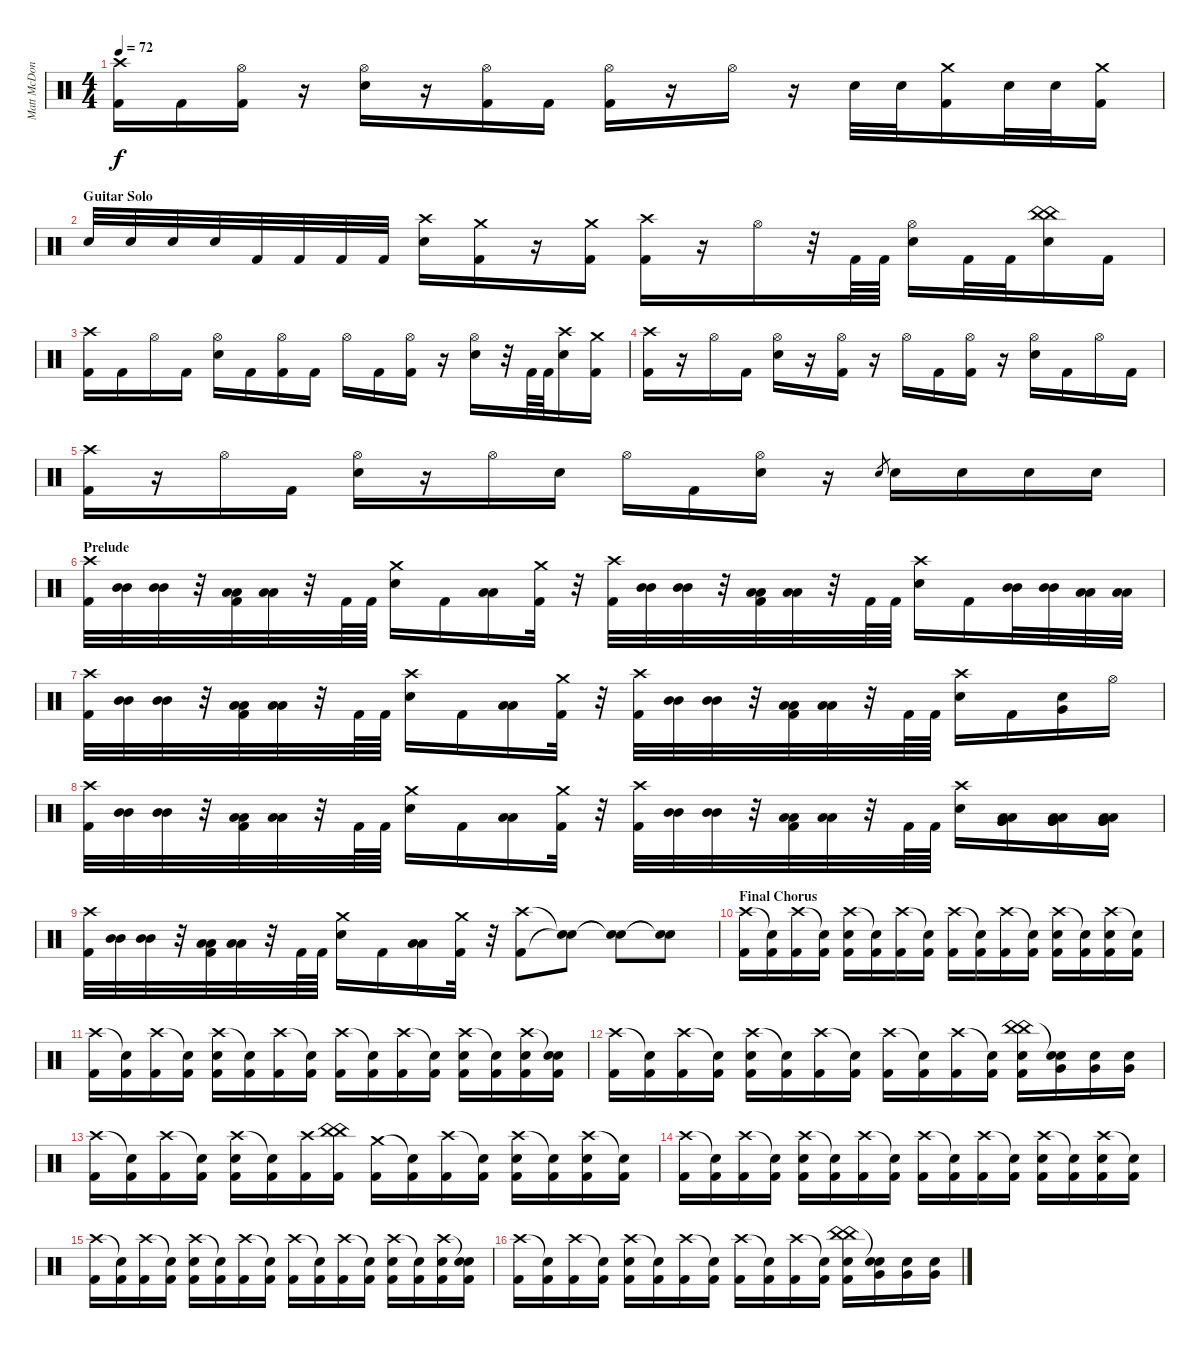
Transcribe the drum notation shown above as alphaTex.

\track ("Matt McDonough \"Spüg\" (Drums)" "Matt McDon") {instrument percussion}
\staff {score}
\articulation defaults
\ts (4 4)
\tempo 72
\clef neutral
\ks c
("Crash high (hit)" "Kick (hit) 2").16{dy f} "Kick (hit) 2".16 ("Hi-Hat (open)" "Kick (hit) 2").16 r.16 ("Hi-Hat (open)" "Electric Snare (hit)").16 r.16 ("Hi-Hat (open)" "Kick (hit) 2").16 "Kick (hit) 2".16 ("Hi-Hat (open)" "Kick (hit) 2").16 r.16 "Hi-Hat (open)".16 r.16 "Electric Snare (hit)".32 "Electric Snare (hit)".32 ("Crash medium (hit)" "Kick (hit) 2").16 "Electric Snare (hit)".32 "Electric Snare (hit)".32 ("Crash medium (hit)" "Kick (hit) 2").16 |
\section ("" "Guitar Solo")
"Electric Snare (hit)".32 "Electric Snare (hit)".32 "Electric Snare (hit)".32 "Electric Snare (hit)".32 "Kick (hit) 2".32 "Kick (hit) 2".32 "Kick (hit) 2".32 "Kick (hit) 2".32 ("Crash high (hit)" "Electric Snare (hit)").16 ("Crash medium (hit)" "Kick (hit) 2").16 r.16 ("Crash medium (hit)" "Kick (hit) 2").16 ("Crash high (hit)" "Kick (hit) 2").16 r.16 "Hi-Hat (open)".16 r.32 "Kick (hit) 2".64 "Kick (hit) 2".64 ("Hi-Hat (open)" "Electric Snare (hit)").16 "Kick (hit) 2".32 "Kick (hit) 2".32 ("China (hit)" "China (hit)" "Electric Snare (hit)").16 "Kick (hit) 2".16 |
("Crash high (hit)" "Kick (hit) 2").16 "Kick (hit) 2".16 "Hi-Hat (open)".16 "Kick (hit) 2".16 ("Hi-Hat (open)" "Electric Snare (hit)").16 "Kick (hit) 2".16 ("Hi-Hat (open)" "Kick (hit) 2").16 "Kick (hit) 2".16 "Hi-Hat (open)".16 "Kick (hit) 2".16 ("Hi-Hat (open)" "Kick (hit) 2").16 r.16 ("Hi-Hat (open)" "Electric Snare (hit)").16 r.32 "Kick (hit) 2".64 "Kick (hit) 2".64 ("Crash high (hit)" "Electric Snare (hit)").16 ("Crash medium (hit)" "Kick (hit) 2").16 |
("Crash high (hit)" "Kick (hit) 2").16 r.16 "Hi-Hat (open)".16 "Kick (hit) 2".16 ("Hi-Hat (open)" "Electric Snare (hit)").16 r.16 ("Hi-Hat (open)" "Kick (hit) 2").16 r.16 "Hi-Hat (open)".16 "Kick (hit) 2".16 ("Hi-Hat (open)" "Kick (hit) 2").16 r.16 ("Hi-Hat (open)" "Electric Snare (hit)").16 "Kick (hit) 2".16 "Hi-Hat (open)".16 "Kick (hit) 2".16 |
("Crash high (hit)" "Kick (hit) 2").16 r.16 "Hi-Hat (open)".16 "Kick (hit) 2".16 ("Hi-Hat (open)" "Electric Snare (hit)").16 r.16 "Hi-Hat (open)".16 "Electric Snare (hit)".16 "Hi-Hat (open)".16 "Kick (hit) 2".16 ("Hi-Hat (open)" "Electric Snare (hit)").16 r.16 "Electric Snare (hit)".8{gr} "Electric Snare (hit)".16 "Electric Snare (hit)".16 "Electric Snare (hit)".16 "Electric Snare (hit)".16 |
\section ("" "Prelude")
("Crash high (hit)" "Kick (hit) 2").32 ("Mid Tom (hit)" "Mid Tom (hit)").32 ("Mid Tom (hit)" "Mid Tom (hit)").32 r.32 ("Low Tom (hit)" "Low Tom (hit)" "Kick (hit) 2").32 ("Low Tom (hit)" "Low Tom (hit)").32 r.32 "Kick (hit) 2".64 "Kick (hit) 2".64 ("Crash medium (hit)" "Electric Snare (hit)").16 "Kick (hit) 2".16 ("Low Tom (hit)" "Low Tom (hit)").16 ("Crash medium (hit)" "Kick (hit) 2").32 r.32 ("Crash high (hit)" "Kick (hit) 2").32 ("Mid Tom (hit)" "Mid Tom (hit)").32 ("Mid Tom (hit)" "Mid Tom (hit)").32 r.32 ("Low Tom (hit)" "Low Tom (hit)" "Kick (hit) 2").32 ("Low Tom (hit)" "Low Tom (hit)").32 r.32 "Kick (hit) 2".64 "Kick (hit) 2".64 ("Crash high (hit)" "Electric Snare (hit)").16 "Kick (hit) 2".16 ("Mid Tom (hit)" "Mid Tom (hit)").32 ("Mid Tom (hit)" "Mid Tom (hit)").32 ("Low Tom (hit)" "Low Tom (hit)").32 ("Low Tom (hit)" "Low Tom (hit)").32 |
("Crash high (hit)" "Kick (hit) 2").32 ("Mid Tom (hit)" "Mid Tom (hit)").32 ("Mid Tom (hit)" "Mid Tom (hit)").32 r.32 ("Low Tom (hit)" "Low Tom (hit)" "Kick (hit) 2").32 ("Low Tom (hit)" "Low Tom (hit)").32 r.32 "Kick (hit) 2".64 "Kick (hit) 2".64 ("Crash high (hit)" "Electric Snare (hit)").16 "Kick (hit) 2".16 ("Low Tom (hit)" "Low Tom (hit)").16 ("Crash medium (hit)" "Kick (hit) 2").32 r.32 ("Crash high (hit)" "Kick (hit) 2").32 ("Mid Tom (hit)" "Mid Tom (hit)").32 ("Mid Tom (hit)" "Mid Tom (hit)").32 r.32 ("Low Tom (hit)" "Low Tom (hit)" "Kick (hit) 2").32 ("Low Tom (hit)" "Low Tom (hit)").32 r.32 "Kick (hit) 2".64 "Kick (hit) 2".64 ("Crash high (hit)" "Electric Snare (hit)").16 "Kick (hit) 2".16 ("Electric Snare (hit)" "Very Low Tom (hit)").16 "Hi-Hat (open)".16 |
("Crash high (hit)" "Kick (hit) 2").32 ("Mid Tom (hit)" "Mid Tom (hit)").32 ("Mid Tom (hit)" "Mid Tom (hit)").32 r.32 ("Low Tom (hit)" "Low Tom (hit)" "Kick (hit) 2").32 ("Low Tom (hit)" "Low Tom (hit)").32 r.32 "Kick (hit) 2".64 "Kick (hit) 2".64 ("Crash medium (hit)" "Electric Snare (hit)").16 "Kick (hit) 2".16 ("Low Tom (hit)" "Low Tom (hit)").16 ("Crash medium (hit)" "Kick (hit) 2").32 r.32 ("Crash high (hit)" "Kick (hit) 2").32 ("Mid Tom (hit)" "Mid Tom (hit)").32 ("Mid Tom (hit)" "Mid Tom (hit)").32 r.32 ("Low Tom (hit)" "Low Tom (hit)" "Kick (hit) 2").32 ("Low Tom (hit)" "Low Tom (hit)").32 r.32 "Kick (hit) 2".64 "Kick (hit) 2".64 ("Crash high (hit)" "Electric Snare (hit)").16 ("Low Tom (hit)" "Low Tom (hit)" "Very Low Tom (hit)" "Very Low Tom (hit)").16 ("Low Tom (hit)" "Low Tom (hit)" "Very Low Tom (hit)" "Very Low Tom (hit)").16 ("Low Tom (hit)" "Low Tom (hit)" "Very Low Tom (hit)" "Very Low Tom (hit)").16 |
("Crash high (hit)" "Kick (hit) 2").32 ("Mid Tom (hit)" "Mid Tom (hit)").32 ("Mid Tom (hit)" "Mid Tom (hit)").32 r.32 ("Low Tom (hit)" "Low Tom (hit)" "Kick (hit) 2").32 ("Low Tom (hit)" "Low Tom (hit)").32 r.32 "Kick (hit) 2".64 "Kick (hit) 2".64 ("Crash medium (hit)" "Electric Snare (hit)").16 "Kick (hit) 2".16 ("Low Tom (hit)" "Low Tom (hit)").16 ("Crash medium (hit)" "Kick (hit) 2").32 r.32 ("Crash high (hit)" "Kick (hit) 2").8 ("Snare (hit)"{t} "Snare (hit)"{t}).8 ("Snare (hit)"{t} "Snare (hit)"{t}).8 ("Snare (hit)"{t} "Snare (hit)"{t}).8 |
\section ("" "Final Chorus")
("Crash high (hit)" "Kick (hit) 2").16 ("Snare (hit)"{t} "Kick (hit) 2").16 ("Crash high (hit)" "Kick (hit) 2").16 ("Snare (hit)"{t} "Kick (hit) 2").16 ("Crash high (hit)" "Electric Snare (hit)" "Kick (hit) 2").16 ("Snare (hit)"{t} "Kick (hit) 2").16 ("Crash high (hit)" "Kick (hit) 2").16 ("Snare (hit)"{t} "Kick (hit) 2").16 ("Crash high (hit)" "Kick (hit) 2").16 ("Snare (hit)"{t} "Kick (hit) 2").16 ("Crash high (hit)" "Kick (hit) 2").16 ("Snare (hit)"{t} "Kick (hit) 2").16 ("Crash high (hit)" "Electric Snare (hit)" "Kick (hit) 2").16 ("Snare (hit)"{t} "Kick (hit) 2").16 ("Crash high (hit)" "Electric Snare (hit)" "Kick (hit) 2").16 ("Snare (hit)"{t} "Kick (hit) 2").16 |
("Crash high (hit)" "Kick (hit) 2").16 ("Snare (hit)"{t} "Kick (hit) 2").16 ("Crash high (hit)" "Kick (hit) 2").16 ("Snare (hit)"{t} "Kick (hit) 2").16 ("Crash high (hit)" "Electric Snare (hit)" "Kick (hit) 2").16 ("Snare (hit)"{t} "Kick (hit) 2").16 ("Crash high (hit)" "Kick (hit) 2").16 ("Snare (hit)"{t} "Kick (hit) 2").16 ("Crash high (hit)" "Kick (hit) 2").16 ("Snare (hit)"{t} "Kick (hit) 2").16 ("Crash high (hit)" "Kick (hit) 2").16 ("Snare (hit)"{t} "Kick (hit) 2").16 ("Crash high (hit)" "Electric Snare (hit)" "Kick (hit) 2").16 ("Snare (hit)"{t} "Kick (hit) 2").16 ("Crash high (hit)" "Electric Snare (hit)" "Kick (hit) 2").16 ("Snare (hit)"{t} "Electric Snare (hit)" "Kick (hit) 2").16 |
("Crash high (hit)" "Kick (hit) 2").16 ("Snare (hit)"{t} "Kick (hit) 2").16 ("Crash high (hit)" "Kick (hit) 2").16 ("Snare (hit)"{t} "Kick (hit) 2").16 ("Crash high (hit)" "Electric Snare (hit)" "Kick (hit) 2").16 ("Snare (hit)"{t} "Kick (hit) 2").16 ("Crash high (hit)" "Kick (hit) 2").16 ("Snare (hit)"{t} "Kick (hit) 2").16 ("Crash high (hit)" "Kick (hit) 2").16 ("Snare (hit)"{t} "Kick (hit) 2").16 ("Crash high (hit)" "Kick (hit) 2").16 ("Snare (hit)"{t} "Kick (hit) 2").16 ("China (hit)" "China (hit)" "Electric Snare (hit)" "Kick (hit) 2").16 ("Snare (hit)"{t} "Electric Snare (hit)" "Very Low Tom (hit)").16 ("Electric Snare (hit)" "Very Low Tom (hit)").16 ("Electric Snare (hit)" "Very Low Tom (hit)").16 |
("Crash high (hit)" "Kick (hit) 2").16 ("Snare (hit)"{t} "Kick (hit) 2").16 ("Crash high (hit)" "Kick (hit) 2").16 ("Snare (hit)"{t} "Kick (hit) 2").16 ("Crash high (hit)" "Electric Snare (hit)" "Kick (hit) 2").16 ("Snare (hit)"{t} "Kick (hit) 2").16 ("Crash high (hit)" "Kick (hit) 2").16 ("China (hit)" "China (hit)" "Kick (hit) 2").16 ("Crash medium (hit)" "Kick (hit) 2").16 ("Snare (hit)"{t} "Kick (hit) 2").16 ("Crash high (hit)" "Kick (hit) 2").16 ("Snare (hit)"{t} "Kick (hit) 2").16 ("Crash high (hit)" "Electric Snare (hit)" "Kick (hit) 2").16 ("Snare (hit)"{t} "Kick (hit) 2").16 ("Crash high (hit)" "Electric Snare (hit)" "Kick (hit) 2").16 ("Snare (hit)"{t} "Kick (hit) 2").16 |
("Crash high (hit)" "Kick (hit) 2").16 ("Snare (hit)"{t} "Kick (hit) 2").16 ("Crash high (hit)" "Kick (hit) 2").16 ("Snare (hit)"{t} "Kick (hit) 2").16 ("Crash high (hit)" "Electric Snare (hit)" "Kick (hit) 2").16 ("Snare (hit)"{t} "Kick (hit) 2").16 ("Crash high (hit)" "Kick (hit) 2").16 ("Snare (hit)"{t} "Kick (hit) 2").16 ("Crash high (hit)" "Kick (hit) 2").16 ("Snare (hit)"{t} "Kick (hit) 2").16 ("Crash high (hit)" "Kick (hit) 2").16 ("Snare (hit)"{t} "Kick (hit) 2").16 ("Crash high (hit)" "Electric Snare (hit)" "Kick (hit) 2").16 ("Snare (hit)"{t} "Kick (hit) 2").16 ("Crash high (hit)" "Electric Snare (hit)" "Kick (hit) 2").16 ("Snare (hit)"{t} "Kick (hit) 2").16 |
("Crash high (hit)" "Kick (hit) 2").16 ("Snare (hit)"{t} "Kick (hit) 2").16 ("Crash high (hit)" "Kick (hit) 2").16 ("Snare (hit)"{t} "Kick (hit) 2").16 ("Crash high (hit)" "Electric Snare (hit)" "Kick (hit) 2").16 ("Snare (hit)"{t} "Kick (hit) 2").16 ("Crash high (hit)" "Kick (hit) 2").16 ("Snare (hit)"{t} "Kick (hit) 2").16 ("Crash high (hit)" "Kick (hit) 2").16 ("Snare (hit)"{t} "Kick (hit) 2").16 ("Crash high (hit)" "Kick (hit) 2").16 ("Snare (hit)"{t} "Kick (hit) 2").16 ("Crash high (hit)" "Electric Snare (hit)" "Kick (hit) 2").16 ("Snare (hit)"{t} "Kick (hit) 2").16 ("Crash high (hit)" "Electric Snare (hit)" "Kick (hit) 2").16 ("Snare (hit)"{t} "Electric Snare (hit)" "Kick (hit) 2").16 |
("Crash high (hit)" "Kick (hit) 2").16 ("Snare (hit)"{t} "Kick (hit) 2").16 ("Crash high (hit)" "Kick (hit) 2").16 ("Snare (hit)"{t} "Kick (hit) 2").16 ("Crash high (hit)" "Electric Snare (hit)" "Kick (hit) 2").16 ("Snare (hit)"{t} "Kick (hit) 2").16 ("Crash high (hit)" "Kick (hit) 2").16 ("Snare (hit)"{t} "Kick (hit) 2").16 ("Crash high (hit)" "Kick (hit) 2").16 ("Snare (hit)"{t} "Kick (hit) 2").16 ("Crash high (hit)" "Kick (hit) 2").16 ("Snare (hit)"{t} "Kick (hit) 2").16 ("China (hit)" "China (hit)" "Electric Snare (hit)" "Kick (hit) 2").16 ("Snare (hit)"{t} "Electric Snare (hit)" "Very Low Tom (hit)").16 ("Electric Snare (hit)" "Very Low Tom (hit)").16 ("Electric Snare (hit)" "Very Low Tom (hit)").16
